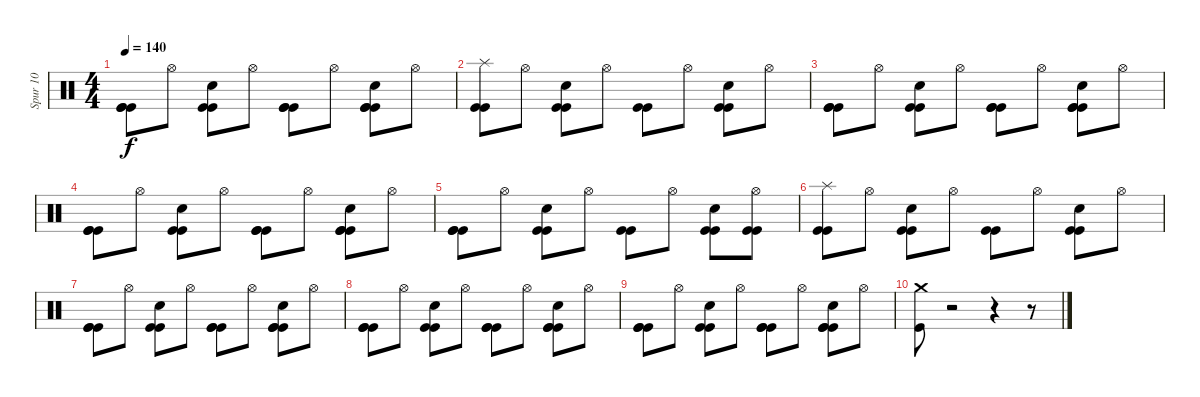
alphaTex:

\track ("Spur 10" "Spur 10") {instrument percussion}
\staff {score}
\articulation defaults
\ts (4 4)
\tempo 140
\clef neutral
\ks c
("Kick (hit)" "Kick (hit)" "Kick (hit)").8{dy f} "Hi-Hat (open)".8 ("Kick (hit)" "Kick (hit)" "Hand Clap (hit)").8 "Hi-Hat (open)".8 ("Kick (hit)" "Kick (hit)" "Kick (hit)").8 "Hi-Hat (open)".8 ("Kick (hit)" "Kick (hit)" "Hand Clap (hit)" "Kick (hit)").8 "Hi-Hat (open)".8 |
("Kick (hit)" "Kick (hit)" "Splash (hit)").8 "Hi-Hat (open)".8 ("Hand Clap (hit)" "Kick (hit)" "Kick (hit)").8 "Hi-Hat (open)".8 ("Kick (hit)" "Kick (hit)").8 "Hi-Hat (open)".8 ("Kick (hit)" "Kick (hit)" "Hand Clap (hit)").8 "Hi-Hat (open)".8 |
("Kick (hit)" "Kick (hit)" "Kick (hit)").8 "Hi-Hat (open)".8 ("Kick (hit)" "Kick (hit)" "Hand Clap (hit)").8 "Hi-Hat (open)".8 ("Kick (hit)" "Kick (hit)" "Kick (hit)").8 "Hi-Hat (open)".8 ("Kick (hit)" "Kick (hit)" "Hand Clap (hit)" "Kick (hit)").8 "Hi-Hat (open)".8 |
("Kick (hit)" "Kick (hit)" "Kick (hit)").8 "Hi-Hat (open)".8 ("Kick (hit)" "Hand Clap (hit)" "Kick (hit)").8 "Hi-Hat (open)".8 ("Kick (hit)" "Kick (hit)" "Kick (hit)").8 "Hi-Hat (open)".8 ("Kick (hit)" "Hand Clap (hit)" "Kick (hit)" "Kick (hit)").8 "Hi-Hat (open)".8 |
("Kick (hit)" "Kick (hit)" "Kick (hit)").8 "Hi-Hat (open)".8 ("Hand Clap (hit)" "Kick (hit)" "Kick (hit)").8 "Hi-Hat (open)".8 ("Kick (hit)" "Kick (hit)").8 "Hi-Hat (open)".8 ("Kick (hit)" "Hand Clap (hit)" "Kick (hit)").8 ("Hi-Hat (open)" "Kick (hit)" "Kick (hit)").8 |
("Kick (hit)" "Kick (hit)" "Splash (hit)").8 "Hi-Hat (open)".8 ("Kick (hit)" "Hand Clap (hit)" "Kick (hit)").8 "Hi-Hat (open)".8 ("Kick (hit)" "Kick (hit)").8 "Hi-Hat (open)".8 ("Kick (hit)" "Hand Clap (hit)" "Kick (hit)").8 "Hi-Hat (open)".8 |
("Kick (hit)" "Kick (hit)" "Kick (hit)").8 "Hi-Hat (open)".8 ("Kick (hit)" "Kick (hit)" "Hand Clap (hit)").8 "Hi-Hat (open)".8 ("Kick (hit)" "Kick (hit)" "Kick (hit)").8 "Hi-Hat (open)".8 ("Kick (hit)" "Kick (hit)" "Hand Clap (hit)" "Kick (hit)").8 "Hi-Hat (open)".8 |
("Kick (hit)" "Kick (hit)" "Kick (hit)").8 "Hi-Hat (open)".8 ("Kick (hit)" "Kick (hit)" "Hand Clap (hit)").8 "Hi-Hat (open)".8 ("Kick (hit)" "Kick (hit)" "Kick (hit)").8 "Hi-Hat (open)".8 ("Kick (hit)" "Kick (hit)" "Hand Clap (hit)" "Kick (hit)").8 "Hi-Hat (open)".8 |
("Kick (hit)" "Kick (hit)" "Kick (hit)").8 "Hi-Hat (open)".8 ("Kick (hit)" "Kick (hit)" "Hand Clap (hit)").8 "Hi-Hat (open)".8 ("Kick (hit)" "Kick (hit)" "Kick (hit)").8 "Hi-Hat (open)".8 ("Kick (hit)" "Kick (hit)" "Hand Clap (hit)" "Kick (hit)").8 "Hi-Hat (open)".8 |
("Crash medium (hit)" "Kick (hit)").8 r.2 r.4 r.8
